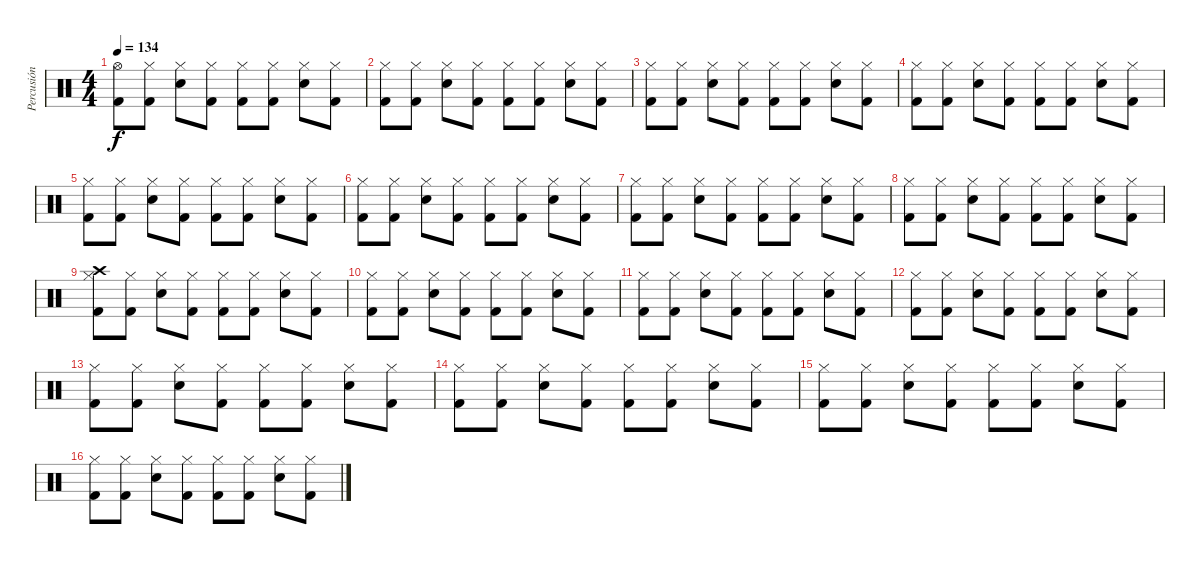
\track ("Percusión" "Percusión") {instrument percussion}
\staff {score}
\articulation defaults
\ts (4 4)
\tempo 134
\clef neutral
\ks c
("Hi-Hat (open)" "Kick (hit) 2").8{dy f} ("Hi-Hat (closed)" "Kick (hit) 2").8 ("Hi-Hat (closed)" "Snare (hit) 2").8 ("Hi-Hat (closed)" "Kick (hit) 2").8 ("Hi-Hat (closed)" "Kick (hit) 2").8 ("Hi-Hat (closed)" "Kick (hit) 2").8 ("Hi-Hat (closed)" "Snare (hit) 2").8 ("Hi-Hat (closed)" "Kick (hit) 2").8 |
("Hi-Hat (closed)" "Kick (hit) 2").8 ("Hi-Hat (closed)" "Kick (hit) 2").8 ("Hi-Hat (closed)" "Snare (hit) 2").8 ("Hi-Hat (closed)" "Kick (hit) 2").8 ("Hi-Hat (closed)" "Kick (hit) 2").8 ("Hi-Hat (closed)" "Kick (hit) 2").8 ("Hi-Hat (closed)" "Snare (hit) 2").8 ("Hi-Hat (closed)" "Kick (hit) 2").8 |
("Hi-Hat (closed)" "Kick (hit) 2").8 ("Hi-Hat (closed)" "Kick (hit) 2").8 ("Hi-Hat (closed)" "Snare (hit) 2").8 ("Hi-Hat (closed)" "Kick (hit) 2").8 ("Hi-Hat (closed)" "Kick (hit) 2").8 ("Hi-Hat (closed)" "Kick (hit) 2").8 ("Hi-Hat (closed)" "Snare (hit) 2").8 ("Hi-Hat (closed)" "Kick (hit) 2").8 |
("Hi-Hat (closed)" "Kick (hit) 2").8 ("Hi-Hat (closed)" "Kick (hit) 2").8 ("Hi-Hat (closed)" "Snare (hit) 2").8 ("Hi-Hat (closed)" "Kick (hit) 2").8 ("Hi-Hat (closed)" "Kick (hit) 2").8 ("Hi-Hat (closed)" "Kick (hit) 2").8 ("Hi-Hat (closed)" "Snare (hit) 2").8 ("Hi-Hat (closed)" "Kick (hit) 2").8 |
("Hi-Hat (closed)" "Kick (hit) 2").8 ("Hi-Hat (closed)" "Kick (hit) 2").8 ("Hi-Hat (closed)" "Snare (hit) 2").8 ("Hi-Hat (closed)" "Kick (hit) 2").8 ("Hi-Hat (closed)" "Kick (hit) 2").8 ("Hi-Hat (closed)" "Kick (hit) 2").8 ("Hi-Hat (closed)" "Snare (hit) 2").8 ("Hi-Hat (closed)" "Kick (hit) 2").8 |
("Hi-Hat (closed)" "Kick (hit) 2").8 ("Hi-Hat (closed)" "Kick (hit) 2").8 ("Hi-Hat (closed)" "Snare (hit) 2").8 ("Hi-Hat (closed)" "Kick (hit) 2").8 ("Hi-Hat (closed)" "Kick (hit) 2").8 ("Hi-Hat (closed)" "Kick (hit) 2").8 ("Hi-Hat (closed)" "Snare (hit) 2").8 ("Hi-Hat (closed)" "Kick (hit) 2").8 |
("Hi-Hat (closed)" "Kick (hit) 2").8 ("Hi-Hat (closed)" "Kick (hit) 2").8 ("Hi-Hat (closed)" "Snare (hit) 2").8 ("Hi-Hat (closed)" "Kick (hit) 2").8 ("Hi-Hat (closed)" "Kick (hit) 2").8 ("Hi-Hat (closed)" "Kick (hit) 2").8 ("Hi-Hat (closed)" "Snare (hit) 2").8 ("Hi-Hat (closed)" "Kick (hit) 2").8 |
("Hi-Hat (closed)" "Kick (hit) 2").8 ("Hi-Hat (closed)" "Kick (hit) 2").8 ("Hi-Hat (closed)" "Snare (hit) 2").8 ("Hi-Hat (closed)" "Kick (hit) 2").8 ("Hi-Hat (closed)" "Kick (hit) 2").8 ("Hi-Hat (closed)" "Kick (hit) 2").8 ("Hi-Hat (closed)" "Snare (hit) 2").8 ("Hi-Hat (closed)" "Kick (hit) 2").8 |
("Crash high (hit)" "Hi-Hat (closed)" "Kick (hit) 2").8 ("Hi-Hat (closed)" "Kick (hit) 2").8 ("Hi-Hat (closed)" "Snare (hit) 2").8 ("Hi-Hat (closed)" "Kick (hit) 2").8 ("Hi-Hat (closed)" "Kick (hit) 2").8 ("Hi-Hat (closed)" "Kick (hit) 2").8 ("Hi-Hat (closed)" "Snare (hit) 2").8 ("Hi-Hat (closed)" "Kick (hit) 2").8 |
("Hi-Hat (closed)" "Kick (hit) 2").8 ("Hi-Hat (closed)" "Kick (hit) 2").8 ("Hi-Hat (closed)" "Snare (hit) 2").8 ("Hi-Hat (closed)" "Kick (hit) 2").8 ("Hi-Hat (closed)" "Kick (hit) 2").8 ("Hi-Hat (closed)" "Kick (hit) 2").8 ("Hi-Hat (closed)" "Snare (hit) 2").8 ("Hi-Hat (closed)" "Kick (hit) 2").8 |
("Hi-Hat (closed)" "Kick (hit) 2").8 ("Hi-Hat (closed)" "Kick (hit) 2").8 ("Hi-Hat (closed)" "Snare (hit) 2").8 ("Hi-Hat (closed)" "Kick (hit) 2").8 ("Hi-Hat (closed)" "Kick (hit) 2").8 ("Hi-Hat (closed)" "Kick (hit) 2").8 ("Hi-Hat (closed)" "Snare (hit) 2").8 ("Hi-Hat (closed)" "Kick (hit) 2").8 |
("Hi-Hat (closed)" "Kick (hit) 2").8 ("Hi-Hat (closed)" "Kick (hit) 2").8 ("Hi-Hat (closed)" "Snare (hit) 2").8 ("Hi-Hat (closed)" "Kick (hit) 2").8 ("Hi-Hat (closed)" "Kick (hit) 2").8 ("Hi-Hat (closed)" "Kick (hit) 2").8 ("Hi-Hat (closed)" "Snare (hit) 2").8 ("Hi-Hat (closed)" "Kick (hit) 2").8 |
("Hi-Hat (closed)" "Kick (hit) 2").8 ("Hi-Hat (closed)" "Kick (hit) 2").8 ("Hi-Hat (closed)" "Snare (hit) 2").8 ("Hi-Hat (closed)" "Kick (hit) 2").8 ("Hi-Hat (closed)" "Kick (hit) 2").8 ("Hi-Hat (closed)" "Kick (hit) 2").8 ("Hi-Hat (closed)" "Snare (hit) 2").8 ("Hi-Hat (closed)" "Kick (hit) 2").8 |
("Hi-Hat (closed)" "Kick (hit) 2").8 ("Hi-Hat (closed)" "Kick (hit) 2").8 ("Hi-Hat (closed)" "Snare (hit) 2").8 ("Hi-Hat (closed)" "Kick (hit) 2").8 ("Hi-Hat (closed)" "Kick (hit) 2").8 ("Hi-Hat (closed)" "Kick (hit) 2").8 ("Hi-Hat (closed)" "Snare (hit) 2").8 ("Hi-Hat (closed)" "Kick (hit) 2").8 |
("Hi-Hat (closed)" "Kick (hit) 2").8 ("Hi-Hat (closed)" "Kick (hit) 2").8 ("Hi-Hat (closed)" "Snare (hit) 2").8 ("Hi-Hat (closed)" "Kick (hit) 2").8 ("Hi-Hat (closed)" "Kick (hit) 2").8 ("Hi-Hat (closed)" "Kick (hit) 2").8 ("Hi-Hat (closed)" "Snare (hit) 2").8 ("Hi-Hat (closed)" "Kick (hit) 2").8 |
("Hi-Hat (closed)" "Kick (hit) 2").8 ("Hi-Hat (closed)" "Kick (hit) 2").8 ("Hi-Hat (closed)" "Snare (hit) 2").8 ("Hi-Hat (closed)" "Kick (hit) 2").8 ("Hi-Hat (closed)" "Kick (hit) 2").8 ("Hi-Hat (closed)" "Kick (hit) 2").8 ("Hi-Hat (closed)" "Snare (hit) 2").8 ("Hi-Hat (closed)" "Kick (hit) 2").8
